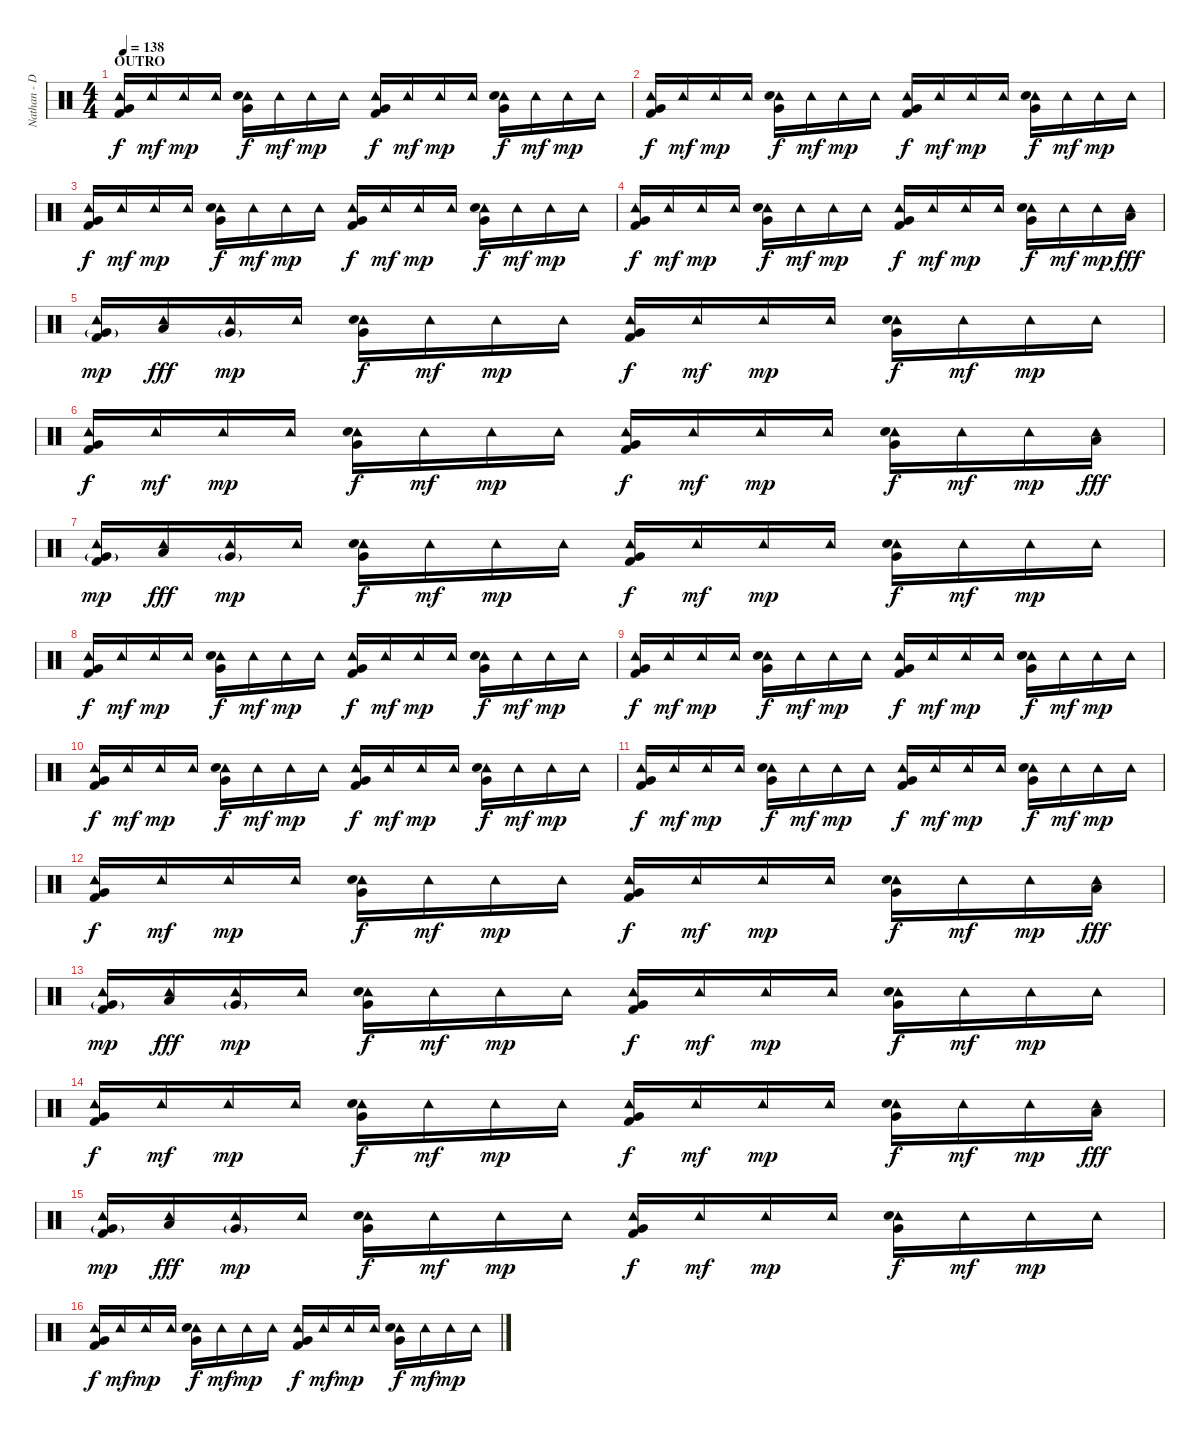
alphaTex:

\track ("Nathan - Drums" "Nathan - D") {instrument percussion}
\staff {score}
\articulation defaults
\ts (4 4)
\section ("" "OUTRO")
\tempo 138
\clef neutral
\ks c
("Tambourine (hit)" "Very Low Tom (hit)" "Kick (hit) 2").16{dy f} "Tambourine (hit)".16{dy mf} "Tambourine (hit)".16{dy mp} "Tambourine (hit)".16 ("Tambourine (hit)" "Snare (hit) 2" "Very Low Tom (hit)").16{dy f} "Tambourine (hit)".16{dy mf} "Tambourine (hit)".16{dy mp} "Tambourine (hit)".16 ("Tambourine (hit)" "Very Low Tom (hit)" "Kick (hit) 2").16{dy f} "Tambourine (hit)".16{dy mf} "Tambourine (hit)".16{dy mp} "Tambourine (hit)".16 ("Tambourine (hit)" "Snare (hit) 2" "Very Low Tom (hit)").16{dy f} "Tambourine (hit)".16{dy mf} "Tambourine (hit)".16{dy mp} "Tambourine (hit)".16 |
("Tambourine (hit)" "Very Low Tom (hit)" "Kick (hit) 2").16{dy f} "Tambourine (hit)".16{dy mf} "Tambourine (hit)".16{dy mp} "Tambourine (hit)".16 ("Tambourine (hit)" "Snare (hit) 2" "Very Low Tom (hit)").16{dy f} "Tambourine (hit)".16{dy mf} "Tambourine (hit)".16{dy mp} "Tambourine (hit)".16 ("Tambourine (hit)" "Very Low Tom (hit)" "Kick (hit) 2").16{dy f} "Tambourine (hit)".16{dy mf} "Tambourine (hit)".16{dy mp} "Tambourine (hit)".16 ("Tambourine (hit)" "Snare (hit) 2" "Very Low Tom (hit)").16{dy f} "Tambourine (hit)".16{dy mf} "Tambourine (hit)".16{dy mp} "Tambourine (hit)".16 |
("Tambourine (hit)" "Very Low Tom (hit)" "Kick (hit) 2").16{dy f} "Tambourine (hit)".16{dy mf} "Tambourine (hit)".16{dy mp} "Tambourine (hit)".16 ("Tambourine (hit)" "Snare (hit) 2" "Very Low Tom (hit)").16{dy f} "Tambourine (hit)".16{dy mf} "Tambourine (hit)".16{dy mp} "Tambourine (hit)".16 ("Tambourine (hit)" "Very Low Tom (hit)" "Kick (hit) 2").16{dy f} "Tambourine (hit)".16{dy mf} "Tambourine (hit)".16{dy mp} "Tambourine (hit)".16 ("Tambourine (hit)" "Snare (hit) 2" "Very Low Tom (hit)").16{dy f} "Tambourine (hit)".16{dy mf} "Tambourine (hit)".16{dy mp} "Tambourine (hit)".16 |
("Tambourine (hit)" "Very Low Tom (hit)" "Kick (hit) 2").16{dy f} "Tambourine (hit)".16{dy mf} "Tambourine (hit)".16{dy mp} "Tambourine (hit)".16 ("Tambourine (hit)" "Snare (hit) 2" "Very Low Tom (hit)").16{dy f} "Tambourine (hit)".16{dy mf} "Tambourine (hit)".16{dy mp} "Tambourine (hit)".16 ("Tambourine (hit)" "Very Low Tom (hit)" "Kick (hit) 2").16{dy f} "Tambourine (hit)".16{dy mf} "Tambourine (hit)".16{dy mp} "Tambourine (hit)".16 ("Tambourine (hit)" "Snare (hit) 2" "Very Low Tom (hit)").16{dy f} "Tambourine (hit)".16{dy mf} "Tambourine (hit)".16{dy mp} ("Tambourine (hit)" "Low Tom (hit)").16{dy fff} |
("Tambourine (hit)" "Very Low Tom (hit)"{g} "Kick (hit) 2").16{dy mp} ("Tambourine (hit)" "Low Tom (hit)").16{dy fff} ("Tambourine (hit)" "Very Low Tom (hit)"{g}).16{dy mp} "Tambourine (hit)".16 ("Tambourine (hit)" "Snare (hit) 2" "Very Low Tom (hit)").16{dy f} "Tambourine (hit)".16{dy mf} "Tambourine (hit)".16{dy mp} "Tambourine (hit)".16 ("Tambourine (hit)" "Very Low Tom (hit)" "Kick (hit) 2").16{dy f} "Tambourine (hit)".16{dy mf} "Tambourine (hit)".16{dy mp} "Tambourine (hit)".16 ("Tambourine (hit)" "Snare (hit) 2" "Very Low Tom (hit)").16{dy f} "Tambourine (hit)".16{dy mf} "Tambourine (hit)".16{dy mp} "Tambourine (hit)".16 |
("Tambourine (hit)" "Very Low Tom (hit)" "Kick (hit) 2").16{dy f} "Tambourine (hit)".16{dy mf} "Tambourine (hit)".16{dy mp} "Tambourine (hit)".16 ("Tambourine (hit)" "Snare (hit) 2" "Very Low Tom (hit)").16{dy f} "Tambourine (hit)".16{dy mf} "Tambourine (hit)".16{dy mp} "Tambourine (hit)".16 ("Tambourine (hit)" "Very Low Tom (hit)" "Kick (hit) 2").16{dy f} "Tambourine (hit)".16{dy mf} "Tambourine (hit)".16{dy mp} "Tambourine (hit)".16 ("Tambourine (hit)" "Snare (hit) 2" "Very Low Tom (hit)").16{dy f} "Tambourine (hit)".16{dy mf} "Tambourine (hit)".16{dy mp} ("Tambourine (hit)" "Low Tom (hit)").16{dy fff} |
("Tambourine (hit)" "Very Low Tom (hit)"{g} "Kick (hit) 2").16{dy mp} ("Tambourine (hit)" "Low Tom (hit)").16{dy fff} ("Tambourine (hit)" "Very Low Tom (hit)"{g}).16{dy mp} "Tambourine (hit)".16 ("Tambourine (hit)" "Snare (hit) 2" "Very Low Tom (hit)").16{dy f} "Tambourine (hit)".16{dy mf} "Tambourine (hit)".16{dy mp} "Tambourine (hit)".16 ("Tambourine (hit)" "Very Low Tom (hit)" "Kick (hit) 2").16{dy f} "Tambourine (hit)".16{dy mf} "Tambourine (hit)".16{dy mp} "Tambourine (hit)".16 ("Tambourine (hit)" "Snare (hit) 2" "Very Low Tom (hit)").16{dy f} "Tambourine (hit)".16{dy mf} "Tambourine (hit)".16{dy mp} "Tambourine (hit)".16 |
("Tambourine (hit)" "Very Low Tom (hit)" "Kick (hit) 2").16{dy f} "Tambourine (hit)".16{dy mf} "Tambourine (hit)".16{dy mp} "Tambourine (hit)".16 ("Tambourine (hit)" "Snare (hit) 2" "Very Low Tom (hit)").16{dy f} "Tambourine (hit)".16{dy mf} "Tambourine (hit)".16{dy mp} "Tambourine (hit)".16 ("Tambourine (hit)" "Very Low Tom (hit)" "Kick (hit) 2").16{dy f} "Tambourine (hit)".16{dy mf} "Tambourine (hit)".16{dy mp} "Tambourine (hit)".16 ("Tambourine (hit)" "Snare (hit) 2" "Very Low Tom (hit)").16{dy f} "Tambourine (hit)".16{dy mf} "Tambourine (hit)".16{dy mp} "Tambourine (hit)".16 |
("Tambourine (hit)" "Very Low Tom (hit)" "Kick (hit) 2").16{dy f} "Tambourine (hit)".16{dy mf} "Tambourine (hit)".16{dy mp} "Tambourine (hit)".16 ("Tambourine (hit)" "Snare (hit) 2" "Very Low Tom (hit)").16{dy f} "Tambourine (hit)".16{dy mf} "Tambourine (hit)".16{dy mp} "Tambourine (hit)".16 ("Tambourine (hit)" "Very Low Tom (hit)" "Kick (hit) 2").16{dy f} "Tambourine (hit)".16{dy mf} "Tambourine (hit)".16{dy mp} "Tambourine (hit)".16 ("Tambourine (hit)" "Snare (hit) 2" "Very Low Tom (hit)").16{dy f} "Tambourine (hit)".16{dy mf} "Tambourine (hit)".16{dy mp} "Tambourine (hit)".16 |
("Tambourine (hit)" "Very Low Tom (hit)" "Kick (hit) 2").16{dy f} "Tambourine (hit)".16{dy mf} "Tambourine (hit)".16{dy mp} "Tambourine (hit)".16 ("Tambourine (hit)" "Snare (hit) 2" "Very Low Tom (hit)").16{dy f} "Tambourine (hit)".16{dy mf} "Tambourine (hit)".16{dy mp} "Tambourine (hit)".16 ("Tambourine (hit)" "Very Low Tom (hit)" "Kick (hit) 2").16{dy f} "Tambourine (hit)".16{dy mf} "Tambourine (hit)".16{dy mp} "Tambourine (hit)".16 ("Tambourine (hit)" "Snare (hit) 2" "Very Low Tom (hit)").16{dy f} "Tambourine (hit)".16{dy mf} "Tambourine (hit)".16{dy mp} "Tambourine (hit)".16 |
("Tambourine (hit)" "Very Low Tom (hit)" "Kick (hit) 2").16{dy f} "Tambourine (hit)".16{dy mf} "Tambourine (hit)".16{dy mp} "Tambourine (hit)".16 ("Tambourine (hit)" "Snare (hit) 2" "Very Low Tom (hit)").16{dy f} "Tambourine (hit)".16{dy mf} "Tambourine (hit)".16{dy mp} "Tambourine (hit)".16 ("Tambourine (hit)" "Very Low Tom (hit)" "Kick (hit) 2").16{dy f} "Tambourine (hit)".16{dy mf} "Tambourine (hit)".16{dy mp} "Tambourine (hit)".16 ("Tambourine (hit)" "Snare (hit) 2" "Very Low Tom (hit)").16{dy f} "Tambourine (hit)".16{dy mf} "Tambourine (hit)".16{dy mp} "Tambourine (hit)".16 |
("Tambourine (hit)" "Very Low Tom (hit)" "Kick (hit) 2").16{dy f} "Tambourine (hit)".16{dy mf} "Tambourine (hit)".16{dy mp} "Tambourine (hit)".16 ("Tambourine (hit)" "Snare (hit) 2" "Very Low Tom (hit)").16{dy f} "Tambourine (hit)".16{dy mf} "Tambourine (hit)".16{dy mp} "Tambourine (hit)".16 ("Tambourine (hit)" "Very Low Tom (hit)" "Kick (hit) 2").16{dy f} "Tambourine (hit)".16{dy mf} "Tambourine (hit)".16{dy mp} "Tambourine (hit)".16 ("Tambourine (hit)" "Snare (hit) 2" "Very Low Tom (hit)").16{dy f} "Tambourine (hit)".16{dy mf} "Tambourine (hit)".16{dy mp} ("Tambourine (hit)" "Low Tom (hit)").16{dy fff} |
("Tambourine (hit)" "Very Low Tom (hit)"{g} "Kick (hit) 2").16{dy mp} ("Tambourine (hit)" "Low Tom (hit)").16{dy fff} ("Tambourine (hit)" "Very Low Tom (hit)"{g}).16{dy mp} "Tambourine (hit)".16 ("Tambourine (hit)" "Snare (hit) 2" "Very Low Tom (hit)").16{dy f} "Tambourine (hit)".16{dy mf} "Tambourine (hit)".16{dy mp} "Tambourine (hit)".16 ("Tambourine (hit)" "Very Low Tom (hit)" "Kick (hit) 2").16{dy f} "Tambourine (hit)".16{dy mf} "Tambourine (hit)".16{dy mp} "Tambourine (hit)".16 ("Tambourine (hit)" "Snare (hit) 2" "Very Low Tom (hit)").16{dy f} "Tambourine (hit)".16{dy mf} "Tambourine (hit)".16{dy mp} "Tambourine (hit)".16 |
("Tambourine (hit)" "Very Low Tom (hit)" "Kick (hit) 2").16{dy f} "Tambourine (hit)".16{dy mf} "Tambourine (hit)".16{dy mp} "Tambourine (hit)".16 ("Tambourine (hit)" "Snare (hit) 2" "Very Low Tom (hit)").16{dy f} "Tambourine (hit)".16{dy mf} "Tambourine (hit)".16{dy mp} "Tambourine (hit)".16 ("Tambourine (hit)" "Very Low Tom (hit)" "Kick (hit) 2").16{dy f} "Tambourine (hit)".16{dy mf} "Tambourine (hit)".16{dy mp} "Tambourine (hit)".16 ("Tambourine (hit)" "Snare (hit) 2" "Very Low Tom (hit)").16{dy f} "Tambourine (hit)".16{dy mf} "Tambourine (hit)".16{dy mp} ("Tambourine (hit)" "Low Tom (hit)").16{dy fff} |
("Tambourine (hit)" "Very Low Tom (hit)"{g} "Kick (hit) 2").16{dy mp} ("Tambourine (hit)" "Low Tom (hit)").16{dy fff} ("Tambourine (hit)" "Very Low Tom (hit)"{g}).16{dy mp} "Tambourine (hit)".16 ("Tambourine (hit)" "Snare (hit) 2" "Very Low Tom (hit)").16{dy f} "Tambourine (hit)".16{dy mf} "Tambourine (hit)".16{dy mp} "Tambourine (hit)".16 ("Tambourine (hit)" "Very Low Tom (hit)" "Kick (hit) 2").16{dy f} "Tambourine (hit)".16{dy mf} "Tambourine (hit)".16{dy mp} "Tambourine (hit)".16 ("Tambourine (hit)" "Snare (hit) 2" "Very Low Tom (hit)").16{dy f} "Tambourine (hit)".16{dy mf} "Tambourine (hit)".16{dy mp} "Tambourine (hit)".16 |
("Tambourine (hit)" "Very Low Tom (hit)" "Kick (hit) 2").16{dy f} "Tambourine (hit)".16{dy mf} "Tambourine (hit)".16{dy mp} "Tambourine (hit)".16 ("Tambourine (hit)" "Snare (hit) 2" "Very Low Tom (hit)").16{dy f} "Tambourine (hit)".16{dy mf} "Tambourine (hit)".16{dy mp} "Tambourine (hit)".16 ("Tambourine (hit)" "Very Low Tom (hit)" "Kick (hit) 2").16{dy f} "Tambourine (hit)".16{dy mf} "Tambourine (hit)".16{dy mp} "Tambourine (hit)".16 ("Tambourine (hit)" "Snare (hit) 2" "Very Low Tom (hit)").16{dy f} "Tambourine (hit)".16{dy mf} "Tambourine (hit)".16{dy mp} "Tambourine (hit)".16
